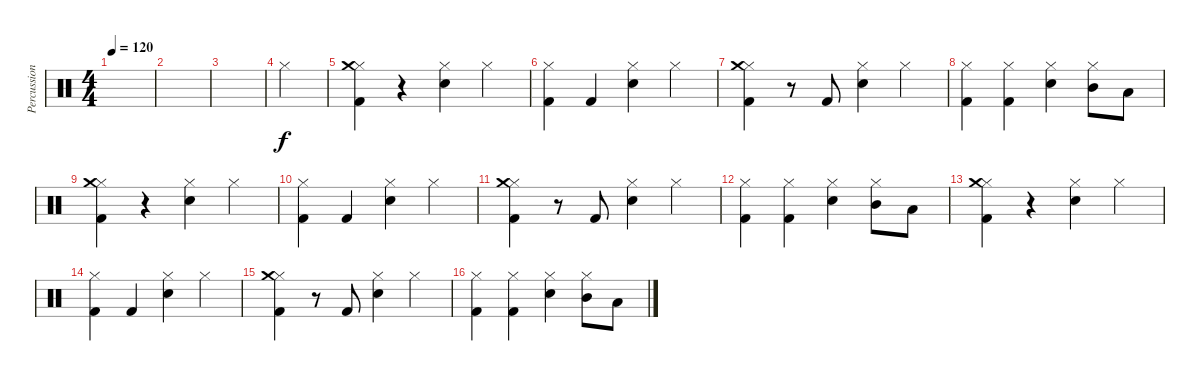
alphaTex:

\track ("Percussions" "Percussion") {instrument percussion}
\staff {score}
\articulation defaults
\ts (4 4)
\tempo 120
\clef neutral
\ks c
|
|
|
"Hi-Hat (closed)".4 |
("Hi-Hat (closed)" "Crash medium (hit)" "Kick (hit) 2").4 r.4 ("Hi-Hat (closed)" "Electric Snare (hit)").4 "Hi-Hat (closed)".4 |
("Hi-Hat (closed)" "Kick (hit) 2").4 "Kick (hit) 2".4 ("Hi-Hat (closed)" "Electric Snare (hit)").4 "Hi-Hat (closed)".4 |
("Hi-Hat (closed)" "Crash medium (hit)" "Kick (hit) 2").4 r.8 "Kick (hit) 2".8 ("Hi-Hat (closed)" "Electric Snare (hit)").4 "Hi-Hat (closed)".4 |
("Hi-Hat (closed)" "Kick (hit) 2").4 ("Hi-Hat (closed)" "Kick (hit) 2").4 ("Hi-Hat (closed)" "Electric Snare (hit)").4 ("Hi-Hat (closed)" "Mid Tom (hit)").8 "Low Tom (hit)".8 |
("Hi-Hat (closed)" "Crash medium (hit)" "Kick (hit) 2").4 r.4 ("Hi-Hat (closed)" "Electric Snare (hit)").4 "Hi-Hat (closed)".4 |
("Hi-Hat (closed)" "Kick (hit) 2").4 "Kick (hit) 2".4 ("Hi-Hat (closed)" "Electric Snare (hit)").4 "Hi-Hat (closed)".4 |
("Hi-Hat (closed)" "Crash medium (hit)" "Kick (hit) 2").4 r.8 "Kick (hit) 2".8 ("Hi-Hat (closed)" "Electric Snare (hit)").4 "Hi-Hat (closed)".4 |
("Hi-Hat (closed)" "Kick (hit) 2").4 ("Hi-Hat (closed)" "Kick (hit) 2").4 ("Hi-Hat (closed)" "Electric Snare (hit)").4 ("Hi-Hat (closed)" "Mid Tom (hit)").8 "Low Tom (hit)".8 |
("Hi-Hat (closed)" "Crash medium (hit)" "Kick (hit) 2").4 r.4 ("Hi-Hat (closed)" "Electric Snare (hit)").4 "Hi-Hat (closed)".4 |
("Hi-Hat (closed)" "Kick (hit) 2").4 "Kick (hit) 2".4 ("Hi-Hat (closed)" "Electric Snare (hit)").4 "Hi-Hat (closed)".4 |
("Hi-Hat (closed)" "Crash medium (hit)" "Kick (hit) 2").4 r.8 "Kick (hit) 2".8 ("Hi-Hat (closed)" "Electric Snare (hit)").4 "Hi-Hat (closed)".4 |
("Hi-Hat (closed)" "Kick (hit) 2").4 ("Hi-Hat (closed)" "Kick (hit) 2").4 ("Hi-Hat (closed)" "Electric Snare (hit)").4 ("Hi-Hat (closed)" "Mid Tom (hit)").8 "Low Tom (hit)".8
